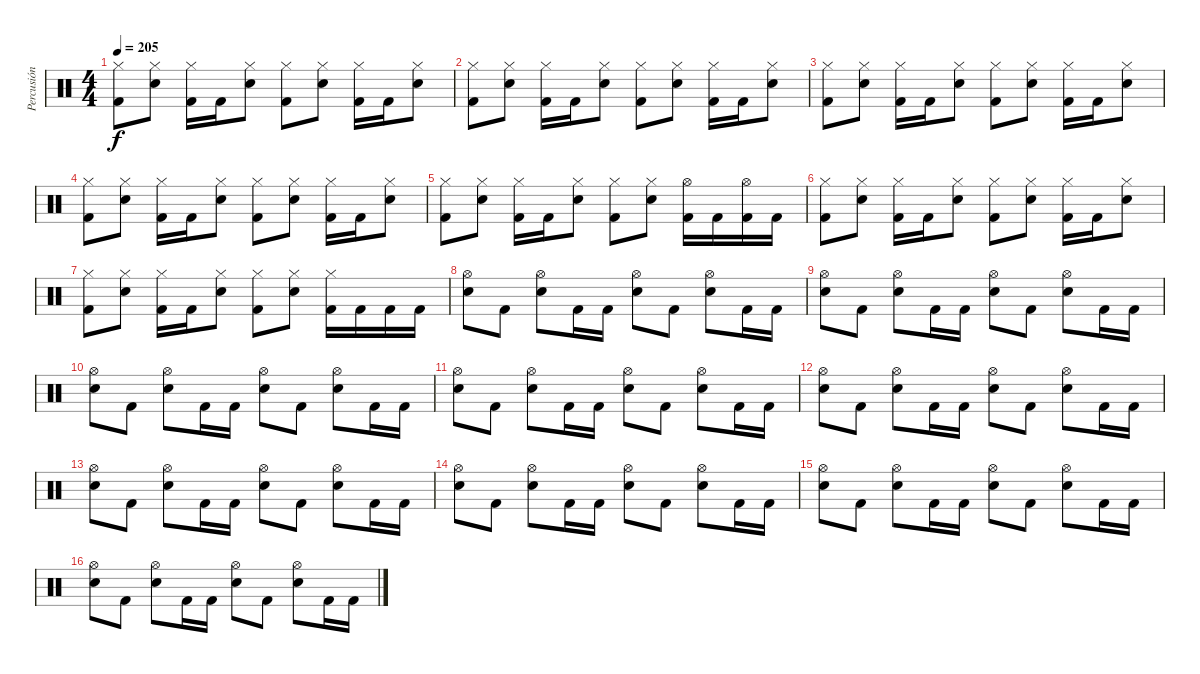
\track ("Percusión" "Percusión") {instrument percussion}
\staff {score}
\articulation defaults
\ts (4 4)
\tempo 205
\clef neutral
\ks c
("Hi-Hat (closed)" "Kick (hit) 2").8{dy f} ("Hi-Hat (closed)" "Snare (hit) 2").8 ("Hi-Hat (closed)" "Kick (hit) 2").16 "Kick (hit) 2".16 ("Hi-Hat (closed)" "Snare (hit) 2").8 ("Hi-Hat (closed)" "Kick (hit) 2").8 ("Hi-Hat (closed)" "Snare (hit) 2").8 ("Hi-Hat (closed)" "Kick (hit) 2").16 "Kick (hit) 2".16 ("Hi-Hat (closed)" "Snare (hit) 2").8 |
("Hi-Hat (closed)" "Kick (hit) 2").8 ("Hi-Hat (closed)" "Snare (hit) 2").8 ("Hi-Hat (closed)" "Kick (hit) 2").16 "Kick (hit) 2".16 ("Hi-Hat (closed)" "Snare (hit) 2").8 ("Hi-Hat (closed)" "Kick (hit) 2").8 ("Hi-Hat (closed)" "Snare (hit) 2").8 ("Hi-Hat (closed)" "Kick (hit) 2").16 "Kick (hit) 2".16 ("Hi-Hat (closed)" "Snare (hit) 2").8 |
("Hi-Hat (closed)" "Kick (hit) 2").8 ("Hi-Hat (closed)" "Snare (hit) 2").8 ("Hi-Hat (closed)" "Kick (hit) 2").16 "Kick (hit) 2".16 ("Hi-Hat (closed)" "Snare (hit) 2").8 ("Hi-Hat (closed)" "Kick (hit) 2").8 ("Hi-Hat (closed)" "Snare (hit) 2").8 ("Hi-Hat (closed)" "Kick (hit) 2").16 "Kick (hit) 2".16 ("Hi-Hat (closed)" "Snare (hit) 2").8 |
("Hi-Hat (closed)" "Kick (hit) 2").8 ("Hi-Hat (closed)" "Snare (hit) 2").8 ("Hi-Hat (closed)" "Kick (hit) 2").16 "Kick (hit) 2".16 ("Hi-Hat (closed)" "Snare (hit) 2").8 ("Hi-Hat (closed)" "Kick (hit) 2").8 ("Hi-Hat (closed)" "Snare (hit) 2").8 ("Hi-Hat (closed)" "Kick (hit) 2").16 "Kick (hit) 2".16 ("Hi-Hat (closed)" "Snare (hit) 2").8 |
("Hi-Hat (closed)" "Kick (hit) 2").8 ("Hi-Hat (closed)" "Snare (hit) 2").8 ("Hi-Hat (closed)" "Kick (hit) 2").16 "Kick (hit) 2".16 ("Hi-Hat (closed)" "Snare (hit) 2").8 ("Hi-Hat (closed)" "Kick (hit) 2").8 ("Hi-Hat (closed)" "Snare (hit) 2").8 ("Hi-Hat (open)" "Kick (hit) 2").16 "Kick (hit) 2".16 ("Hi-Hat (open)" "Kick (hit) 2").16 "Kick (hit) 2".16 |
("Hi-Hat (closed)" "Kick (hit) 2").8 ("Hi-Hat (closed)" "Snare (hit) 2").8 ("Hi-Hat (closed)" "Kick (hit) 2").16 "Kick (hit) 2".16 ("Hi-Hat (closed)" "Snare (hit) 2").8 ("Hi-Hat (closed)" "Kick (hit) 2").8 ("Hi-Hat (closed)" "Snare (hit) 2").8 ("Hi-Hat (closed)" "Kick (hit) 2").16 "Kick (hit) 2".16 ("Hi-Hat (closed)" "Snare (hit) 2").8 |
("Hi-Hat (closed)" "Kick (hit) 2").8 ("Hi-Hat (closed)" "Snare (hit) 2").8 ("Hi-Hat (closed)" "Kick (hit) 2").16 "Kick (hit) 2".16 ("Hi-Hat (closed)" "Snare (hit) 2").8 ("Hi-Hat (closed)" "Kick (hit) 2").8 ("Hi-Hat (closed)" "Snare (hit) 2").8 ("Hi-Hat (closed)" "Kick (hit) 2").16 "Kick (hit) 2".16 "Kick (hit) 2".16 "Kick (hit) 2".16 |
("Hi-Hat (open)" "Snare (hit) 2").8 "Kick (hit) 2".8 ("Hi-Hat (open)" "Snare (hit) 2").8 "Kick (hit) 2".16 "Kick (hit) 2".16 ("Hi-Hat (open)" "Snare (hit) 2").8 "Kick (hit) 2".8 ("Hi-Hat (open)" "Snare (hit) 2").8 "Kick (hit) 2".16 "Kick (hit) 2".16 |
("Hi-Hat (open)" "Snare (hit) 2").8 "Kick (hit) 2".8 ("Hi-Hat (open)" "Snare (hit) 2").8 "Kick (hit) 2".16 "Kick (hit) 2".16 ("Hi-Hat (open)" "Snare (hit) 2").8 "Kick (hit) 2".8 ("Hi-Hat (open)" "Snare (hit) 2").8 "Kick (hit) 2".16 "Kick (hit) 2".16 |
("Hi-Hat (open)" "Snare (hit) 2").8 "Kick (hit) 2".8 ("Hi-Hat (open)" "Snare (hit) 2").8 "Kick (hit) 2".16 "Kick (hit) 2".16 ("Hi-Hat (open)" "Snare (hit) 2").8 "Kick (hit) 2".8 ("Hi-Hat (open)" "Snare (hit) 2").8 "Kick (hit) 2".16 "Kick (hit) 2".16 |
("Hi-Hat (open)" "Snare (hit) 2").8 "Kick (hit) 2".8 ("Hi-Hat (open)" "Snare (hit) 2").8 "Kick (hit) 2".16 "Kick (hit) 2".16 ("Hi-Hat (open)" "Snare (hit) 2").8 "Kick (hit) 2".8 ("Hi-Hat (open)" "Snare (hit) 2").8 "Kick (hit) 2".16 "Kick (hit) 2".16 |
("Hi-Hat (open)" "Snare (hit) 2").8 "Kick (hit) 2".8 ("Hi-Hat (open)" "Snare (hit) 2").8 "Kick (hit) 2".16 "Kick (hit) 2".16 ("Hi-Hat (open)" "Snare (hit) 2").8 "Kick (hit) 2".8 ("Hi-Hat (open)" "Snare (hit) 2").8 "Kick (hit) 2".16 "Kick (hit) 2".16 |
("Hi-Hat (open)" "Snare (hit) 2").8 "Kick (hit) 2".8 ("Hi-Hat (open)" "Snare (hit) 2").8 "Kick (hit) 2".16 "Kick (hit) 2".16 ("Hi-Hat (open)" "Snare (hit) 2").8 "Kick (hit) 2".8 ("Hi-Hat (open)" "Snare (hit) 2").8 "Kick (hit) 2".16 "Kick (hit) 2".16 |
("Hi-Hat (open)" "Snare (hit) 2").8 "Kick (hit) 2".8 ("Hi-Hat (open)" "Snare (hit) 2").8 "Kick (hit) 2".16 "Kick (hit) 2".16 ("Hi-Hat (open)" "Snare (hit) 2").8 "Kick (hit) 2".8 ("Hi-Hat (open)" "Snare (hit) 2").8 "Kick (hit) 2".16 "Kick (hit) 2".16 |
("Hi-Hat (open)" "Snare (hit) 2").8 "Kick (hit) 2".8 ("Hi-Hat (open)" "Snare (hit) 2").8 "Kick (hit) 2".16 "Kick (hit) 2".16 ("Hi-Hat (open)" "Snare (hit) 2").8 "Kick (hit) 2".8 ("Hi-Hat (open)" "Snare (hit) 2").8 "Kick (hit) 2".16 "Kick (hit) 2".16 |
("Hi-Hat (open)" "Snare (hit) 2").8 "Kick (hit) 2".8 ("Hi-Hat (open)" "Snare (hit) 2").8 "Kick (hit) 2".16 "Kick (hit) 2".16 ("Hi-Hat (open)" "Snare (hit) 2").8 "Kick (hit) 2".8 ("Hi-Hat (open)" "Snare (hit) 2").8 "Kick (hit) 2".16 "Kick (hit) 2".16
